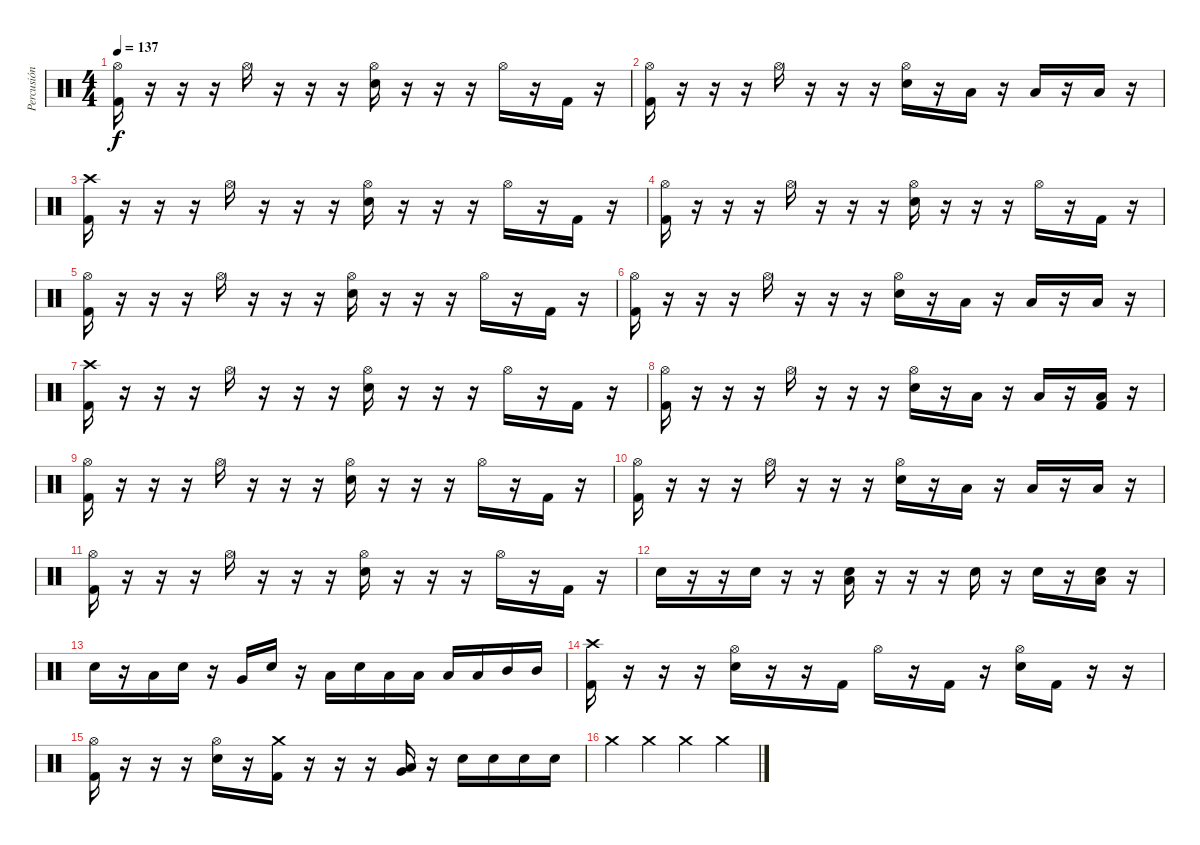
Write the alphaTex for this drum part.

\track ("Percusión" "Percusión") {instrument percussion}
\staff {score}
\articulation defaults
\ts (4 4)
\tempo 137
\clef neutral
\ks c
("Hi-Hat (open)" "Kick (hit) 2").16{dy f} r.16 r.16 r.16 "Hi-Hat (open)".16 r.16 r.16 r.16 ("Hi-Hat (open)" "Electric Snare (hit)").16 r.16 r.16 r.16 "Hi-Hat (open)".16 r.16 "Kick (hit) 2".16 r.16 |
("Hi-Hat (open)" "Kick (hit) 2").16 r.16 r.16 r.16 "Hi-Hat (open)".16 r.16 r.16 r.16 ("Hi-Hat (open)" "Electric Snare (hit)").16 r.16 "Low Tom (hit)".16 r.16 "Low Tom (hit)".16 r.16 "Low Floor Tom (hit)".16 r.16 |
("Crash high (hit)" "Kick (hit) 2").16 r.16 r.16 r.16 "Hi-Hat (open)".16 r.16 r.16 r.16 ("Hi-Hat (open)" "Electric Snare (hit)").16 r.16 r.16 r.16 "Hi-Hat (open)".16 r.16 "Kick (hit) 2".16 r.16 |
("Hi-Hat (open)" "Kick (hit) 2").16 r.16 r.16 r.16 "Hi-Hat (open)".16 r.16 r.16 r.16 ("Hi-Hat (open)" "Electric Snare (hit)").16 r.16 r.16 r.16 "Hi-Hat (open)".16 r.16 "Kick (hit) 2".16 r.16 |
("Hi-Hat (open)" "Kick (hit) 2").16 r.16 r.16 r.16 "Hi-Hat (open)".16 r.16 r.16 r.16 ("Hi-Hat (open)" "Electric Snare (hit)").16 r.16 r.16 r.16 "Hi-Hat (open)".16 r.16 "Kick (hit) 2".16 r.16 |
("Hi-Hat (open)" "Kick (hit) 2").16 r.16 r.16 r.16 "Hi-Hat (open)".16 r.16 r.16 r.16 ("Hi-Hat (open)" "Electric Snare (hit)").16 r.16 "Low Tom (hit)".16 r.16 "Low Tom (hit)".16 r.16 "Low Floor Tom (hit)".16 r.16 |
("Crash high (hit)" "Kick (hit) 2").16 r.16 r.16 r.16 "Hi-Hat (open)".16 r.16 r.16 r.16 ("Hi-Hat (open)" "Electric Snare (hit)").16 r.16 r.16 r.16 "Hi-Hat (open)".16 r.16 "Kick (hit) 2".16 r.16 |
("Hi-Hat (open)" "Kick (hit) 2").16 r.16 r.16 r.16 "Hi-Hat (open)".16 r.16 r.16 r.16 ("Hi-Hat (open)" "Electric Snare (hit)").16 r.16 "Low Tom (hit)".16 r.16 "Low Tom (hit)".16 r.16 ("Low Floor Tom (hit)" "Kick (hit) 2").16 r.16 |
("Hi-Hat (open)" "Kick (hit) 2").16 r.16 r.16 r.16 "Hi-Hat (open)".16 r.16 r.16 r.16 ("Hi-Hat (open)" "Electric Snare (hit)").16 r.16 r.16 r.16 "Hi-Hat (open)".16 r.16 "Kick (hit) 2".16 r.16 |
("Hi-Hat (open)" "Kick (hit) 2").16 r.16 r.16 r.16 "Hi-Hat (open)".16 r.16 r.16 r.16 ("Hi-Hat (open)" "Electric Snare (hit)").16 r.16 "Low Tom (hit)".16 r.16 "Low Tom (hit)".16 r.16 "Low Floor Tom (hit)".16 r.16 |
("Hi-Hat (open)" "Kick (hit) 2").16 r.16 r.16 r.16 "Hi-Hat (open)".16 r.16 r.16 r.16 ("Hi-Hat (open)" "Electric Snare (hit)").16 r.16 r.16 r.16 "Hi-Hat (open)".16 r.16 "Kick (hit) 2".16 r.16 |
"Electric Snare (hit)".16 r.16 r.16 "Electric Snare (hit)".16 r.16 r.16 ("Electric Snare (hit)" "Low Tom (hit)").16 r.16 r.16 r.16 "Electric Snare (hit)".16 r.16 "Electric Snare (hit)".16 r.16 ("Electric Snare (hit)" "Low Tom (hit)").16 r.16 |
"Electric Snare (hit)".16 r.16 "Low Tom (hit)".16 "Electric Snare (hit)".16 r.16 "Very Low Tom (hit)".16 "Electric Snare (hit)".16 r.16 "Low Tom (hit)".16 "Electric Snare (hit)".16 "Low Floor Tom (hit)".16 "Low Floor Tom (hit)".16 "Low Tom (hit)".16 "Low Tom (hit)".16 "Mid Tom (hit)".16 "Mid Tom (hit)".16 |
("Crash high (hit)" "Kick (hit) 2").16 r.16 r.16 r.16 ("Hi-Hat (open)" "Electric Snare (hit)").16 r.16 r.16 "Kick (hit) 2".16 "Hi-Hat (open)".16 r.16 "Kick (hit) 2".16 r.16 ("Hi-Hat (open)" "Electric Snare (hit)").16 "Kick (hit) 2".16 r.16 r.16 |
("Hi-Hat (open)" "Kick (hit) 2").16 r.16 r.16 r.16 ("Hi-Hat (open)" "Electric Snare (hit)").16 r.16 ("Crash medium (hit)" "Kick (hit) 2").16 r.16 r.16 r.16 ("Very Low Tom (hit)" "Low Tom (hit)").16 r.16 "Electric Snare (hit)".16 "Electric Snare (hit)".16 "Electric Snare (hit)".16 "Electric Snare (hit)".16 |
"Crash medium (hit)".4 "Crash medium (hit)".4 "Crash medium (hit)".4 "Crash medium (hit)".4
